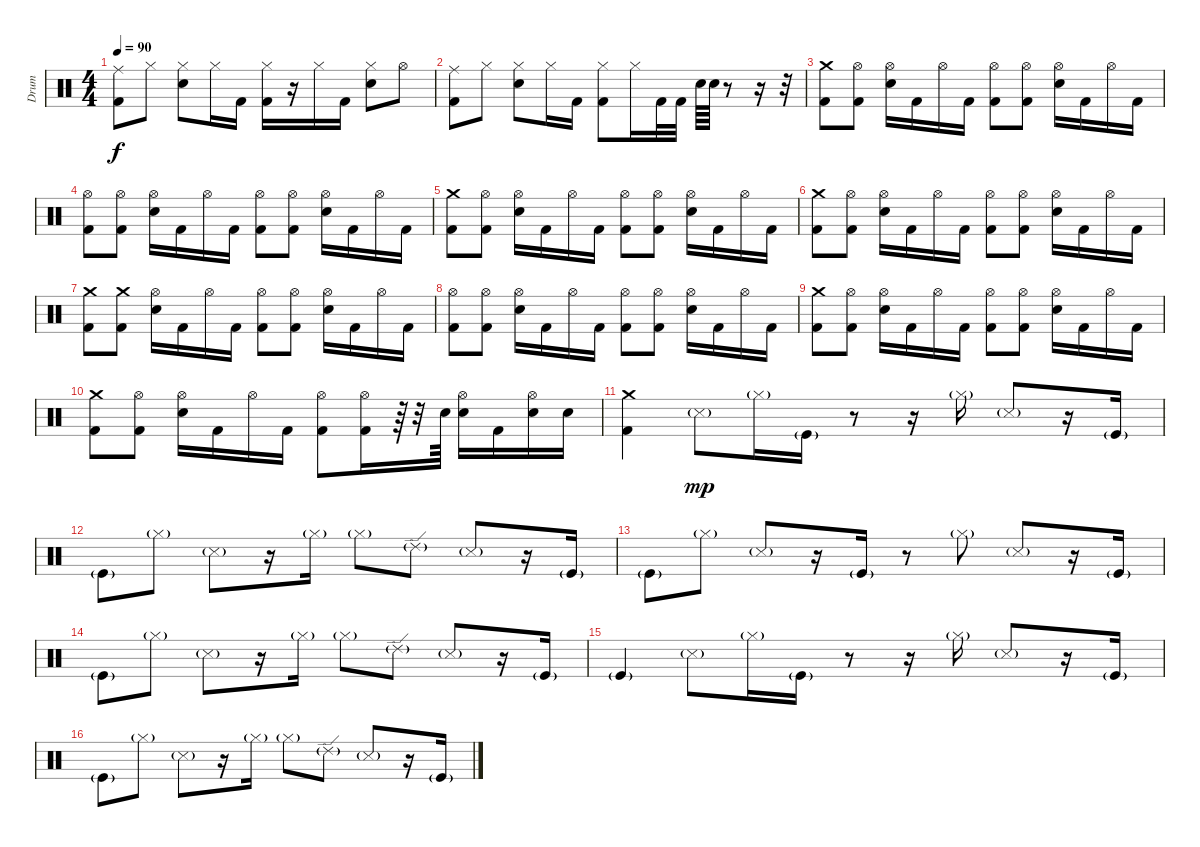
\track ("Drum" "Drum") {instrument percussion}
\staff {score}
\articulation defaults
\ts (4 4)
\tempo 90
\clef neutral
\ks c
("Ride (middle)" "Kick (hit) 2").8{dy f} "Hi-Hat (closed)".8 ("Hi-Hat (closed)" "Snare (hit) 2").8 "Hi-Hat (closed)".16 "Kick (hit) 2".16 ("Hi-Hat (closed)" "Kick (hit) 2").16 r.16 "Hi-Hat (closed)".16 "Kick (hit) 2".16 ("Hi-Hat (closed)" "Snare (hit) 2").8 "Hi-Hat (open)".8 |
("Ride (middle)" "Kick (hit) 2").8 "Hi-Hat (closed)".8 ("Hi-Hat (closed)" "Snare (hit) 2").8 "Hi-Hat (closed)".16 "Kick (hit) 2".16 ("Hi-Hat (closed)" "Kick (hit) 2").8 "Hi-Hat (closed)".16 "Kick (hit) 2".32 "Kick (hit) 2".32 "Snare (hit) 2".64 "Snare (hit) 2".64 r.8 r.16 r.32 |
("Crash medium (hit)" "Kick (hit) 2").8 ("Hi-Hat (open)" "Kick (hit) 2").8 ("Hi-Hat (open)" "Snare (hit) 2").16 "Kick (hit) 2".16 "Hi-Hat (open)".16 "Kick (hit) 2".16 ("Hi-Hat (open)" "Kick (hit) 2").8 ("Hi-Hat (open)" "Kick (hit) 2").8 ("Hi-Hat (open)" "Snare (hit) 2").16 "Kick (hit) 2".16 "Hi-Hat (open)".16 "Kick (hit) 2".16 |
("Hi-Hat (open)" "Kick (hit) 2").8 ("Hi-Hat (open)" "Kick (hit) 2").8 ("Hi-Hat (open)" "Snare (hit) 2").16 "Kick (hit) 2".16 "Hi-Hat (open)".16 "Kick (hit) 2".16 ("Hi-Hat (open)" "Kick (hit) 2").8 ("Hi-Hat (open)" "Kick (hit) 2").8 ("Hi-Hat (open)" "Snare (hit) 2").16 "Kick (hit) 2".16 "Hi-Hat (open)".16 "Kick (hit) 2".16 |
("Crash medium (hit)" "Kick (hit) 2").8 ("Hi-Hat (open)" "Kick (hit) 2").8 ("Hi-Hat (open)" "Snare (hit) 2").16 "Kick (hit) 2".16 "Hi-Hat (open)".16 "Kick (hit) 2".16 ("Hi-Hat (open)" "Kick (hit) 2").8 ("Hi-Hat (open)" "Kick (hit) 2").8 ("Hi-Hat (open)" "Snare (hit) 2").16 "Kick (hit) 2".16 "Hi-Hat (open)".16 "Kick (hit) 2".16 |
("Crash medium (hit)" "Kick (hit) 2").8 ("Hi-Hat (open)" "Kick (hit) 2").8 ("Hi-Hat (open)" "Snare (hit) 2").16 "Kick (hit) 2".16 "Hi-Hat (open)".16 "Kick (hit) 2".16 ("Hi-Hat (open)" "Kick (hit) 2").8 ("Hi-Hat (open)" "Kick (hit) 2").8 ("Hi-Hat (open)" "Snare (hit) 2").16 "Kick (hit) 2".16 "Hi-Hat (open)".16 "Kick (hit) 2".16 |
("Crash medium (hit)" "Kick (hit) 2").8 ("Crash medium (hit)" "Kick (hit) 2").8 ("Hi-Hat (open)" "Snare (hit) 2").16 "Kick (hit) 2".16 "Hi-Hat (open)".16 "Kick (hit) 2".16 ("Hi-Hat (open)" "Kick (hit) 2").8 ("Hi-Hat (open)" "Kick (hit) 2").8 ("Hi-Hat (open)" "Snare (hit) 2").16 "Kick (hit) 2".16 "Hi-Hat (open)".16 "Kick (hit) 2".16 |
("Hi-Hat (open)" "Kick (hit) 2").8 ("Hi-Hat (open)" "Kick (hit) 2").8 ("Hi-Hat (open)" "Snare (hit) 2").16 "Kick (hit) 2".16 "Hi-Hat (open)".16 "Kick (hit) 2".16 ("Hi-Hat (open)" "Kick (hit) 2").8 ("Hi-Hat (open)" "Kick (hit) 2").8 ("Hi-Hat (open)" "Snare (hit) 2").16 "Kick (hit) 2".16 "Hi-Hat (open)".16 "Kick (hit) 2".16 |
("Crash medium (hit)" "Kick (hit) 2").8 ("Hi-Hat (open)" "Kick (hit) 2").8 ("Hi-Hat (open)" "Snare (hit) 2").16 "Kick (hit) 2".16 "Hi-Hat (open)".16 "Kick (hit) 2".16 ("Hi-Hat (open)" "Kick (hit) 2").8 ("Hi-Hat (open)" "Kick (hit) 2").8 ("Hi-Hat (open)" "Snare (hit) 2").16 "Kick (hit) 2".16 "Hi-Hat (open)".16 "Kick (hit) 2".16 |
("Crash medium (hit)" "Kick (hit) 2").8 ("Hi-Hat (open)" "Kick (hit) 2").8 ("Hi-Hat (open)" "Snare (hit) 2").16 "Kick (hit) 2".16 "Hi-Hat (open)".16 "Kick (hit) 2".16 ("Hi-Hat (open)" "Kick (hit) 2").8 ("Hi-Hat (open)" "Kick (hit) 2").16 r.64 r.32 "Snare (hit) 2".64 ("Hi-Hat (open)" "Snare (hit) 2").16 "Kick (hit) 2".16 ("Hi-Hat (open)" "Snare (hit) 2").16 "Snare (hit) 2".16 |
("Crash medium (hit)" "Kick (hit) 2").4 "Snare (side stick) 3"{g}.8{dy mp} "Hi-Hat (closed)"{g}.16 "Kick (hit)"{g}.16 r.8 r.16 "Hi-Hat (closed)"{g}.16 "Snare (side stick) 3"{g}.8 r.16 "Kick (hit)"{g}.16 |
"Kick (hit)"{g}.8 "Hi-Hat (closed)"{g}.8 "Snare (side stick) 3"{g}.8 r.16 "Hi-Hat (closed)"{g}.16 "Hi-Hat (closed)"{g}.8 "Ride (edge) 2"{g}.8 "Snare (side stick) 3"{g}.8 r.16 "Kick (hit)"{g}.16 |
"Kick (hit)"{g}.8 "Hi-Hat (closed)"{g}.8 "Snare (side stick) 3"{g}.8 r.16 "Kick (hit)"{g}.16 r.8 "Hi-Hat (closed)"{g}.8 "Snare (side stick) 3"{g}.8 r.16 "Kick (hit)"{g}.16 |
"Kick (hit)"{g}.8 "Hi-Hat (closed)"{g}.8 "Snare (side stick) 3"{g}.8 r.16 "Hi-Hat (closed)"{g}.16 "Hi-Hat (closed)"{g}.8 "Ride (edge) 2"{g}.8 "Snare (side stick) 3"{g}.8 r.16 "Kick (hit)"{g}.16 |
"Kick (hit)"{g}.4 "Snare (side stick) 3"{g}.8 "Hi-Hat (closed)"{g}.16 "Kick (hit)"{g}.16 r.8 r.16 "Hi-Hat (closed)"{g}.16 "Snare (side stick) 3"{g}.8 r.16 "Kick (hit)"{g}.16 |
"Kick (hit)"{g}.8 "Hi-Hat (closed)"{g}.8 "Snare (side stick) 3"{g}.8 r.16 "Hi-Hat (closed)"{g}.16 "Hi-Hat (closed)"{g}.8 "Ride (edge) 2"{g}.8 "Snare (side stick) 3"{g}.8 r.16 "Kick (hit)"{g}.16
